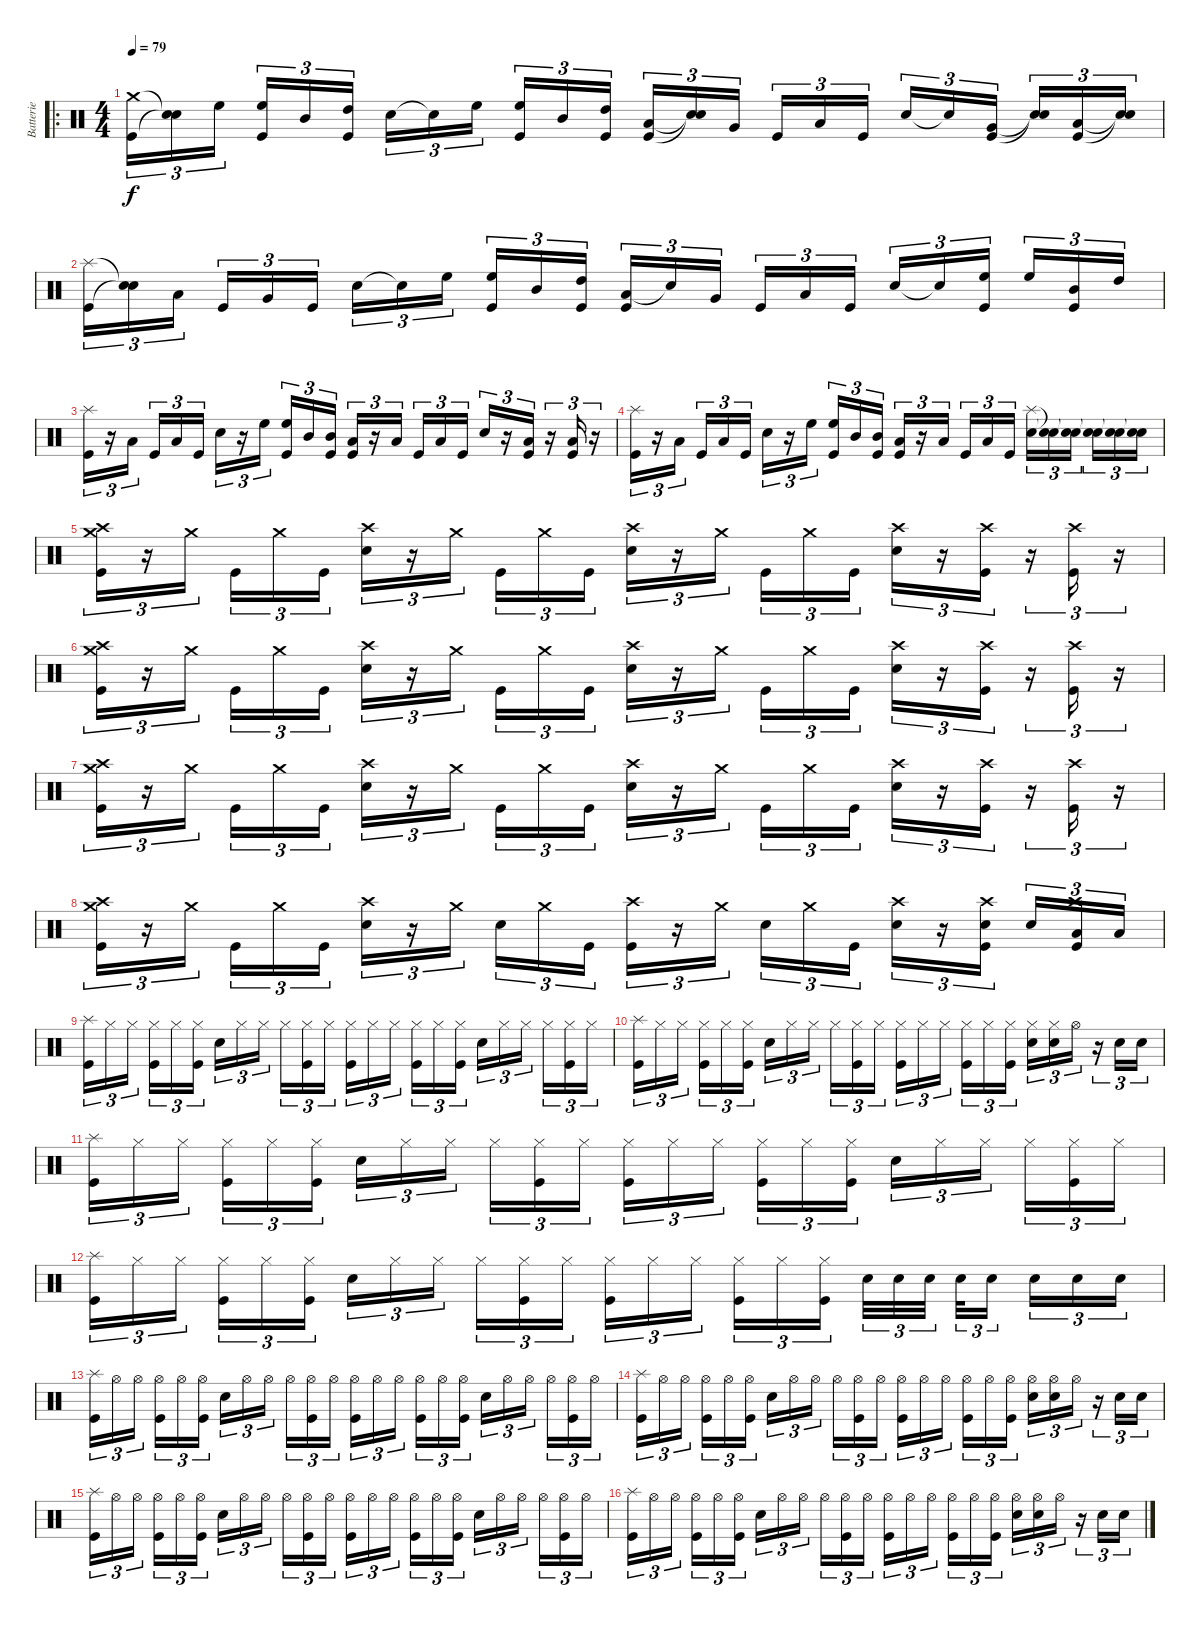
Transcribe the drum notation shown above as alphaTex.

\track ("Batterie" "Batterie") {instrument percussion}
\staff {score}
\articulation defaults
\ro
\ts (4 4)
\tempo 79
\clef neutral
\ks c
("Crash medium (hit)" "Kick (hit)").16{tu (3 2) dy f} ("Snare (hit)"{t} "Snare (hit)"{t}).16{tu (3 2)} "High Floor Tom (hit)".16{tu (3 2)} ("High Floor Tom (hit)" "Kick (hit)").16{tu (3 2)} "Mid Tom (hit)".16{tu (3 2)} ("High Tom (hit)" "Kick (hit)").16{tu (3 2)} "Snare (hit) 2".16{tu (3 2)} "Snare (hit)"{t}.16{tu (3 2)} "High Floor Tom (hit)".16{tu (3 2)} ("High Floor Tom (hit)" "Kick (hit)").16{tu (3 2)} "Mid Tom (hit)".16{tu (3 2)} ("High Tom (hit)" "Kick (hit)").16{tu (3 2)} ("Low Floor Tom (hit)" "Kick (hit)").16{tu (3 2)} ("Snare (hit)"{t} "Snare (hit)"{t}).16{tu (3 2)} "Very Low Tom (hit)".16{tu (3 2)} "Kick (hit)".16{tu (3 2)} "Low Floor Tom (hit)".16{tu (3 2)} "Kick (hit)".16{tu (3 2)} "Snare (hit) 2".16{tu (3 2)} "Snare (hit)"{t}.16{tu (3 2)} ("Very Low Tom (hit)" "Kick (hit)").16{tu (3 2)} ("Snare (hit)"{t} "Snare (hit)"{t}).16{tu (3 2)} ("Low Floor Tom (hit)" "Kick (hit)").16{tu (3 2)} ("Snare (hit)"{t} "Snare (hit)"{t}).16{tu (3 2)} |
("Splash (hit)" "Kick (hit)").16{tu (3 2)} ("Snare (hit)"{t} "Snare (hit)"{t}).16{tu (3 2)} "Low Floor Tom (hit)".16{tu (3 2)} "Kick (hit)".16{tu (3 2)} "Very Low Tom (hit)".16{tu (3 2)} "Kick (hit)".16{tu (3 2)} "Snare (hit) 2".16{tu (3 2)} "Snare (hit)"{t}.16{tu (3 2)} "High Floor Tom (hit)".16{tu (3 2)} ("High Floor Tom (hit)" "Kick (hit)").16{tu (3 2)} "Mid Tom (hit)".16{tu (3 2)} ("High Tom (hit)" "Kick (hit)").16{tu (3 2)} ("Low Floor Tom (hit)" "Kick (hit)").16{tu (3 2)} "Snare (hit)"{t}.16{tu (3 2)} "Very Low Tom (hit)".16{tu (3 2)} "Kick (hit)".16{tu (3 2)} "Low Floor Tom (hit)".16{tu (3 2)} "Kick (hit)".16{tu (3 2)} "Snare (hit) 2".16{tu (3 2)} "Snare (hit)"{t}.16{tu (3 2)} ("High Floor Tom (hit)" "Kick (hit)").16{tu (3 2)} "High Floor Tom (hit)".16{tu (3 2)} ("Mid Tom (hit)" "Kick (hit)").16{tu (3 2)} "High Tom (hit)".16{tu (3 2)} |
("Splash (hit)" "Kick (hit)").16{tu (3 2)} r.16{tu (3 2)} "Low Floor Tom (hit)".16{tu (3 2)} "Kick (hit)".16{tu (3 2)} "Low Floor Tom (hit)".16{tu (3 2)} "Kick (hit)".16{tu (3 2)} "Snare (hit) 2".16{tu (3 2)} r.16{tu (3 2)} "High Floor Tom (hit)".16{tu (3 2)} ("High Floor Tom (hit)" "Kick (hit)").16{tu (3 2)} "Mid Tom (hit)".16{tu (3 2)} ("Mid Tom (hit)" "Kick (hit)").16{tu (3 2)} ("Low Floor Tom (hit)" "Kick (hit)").16{tu (3 2)} r.16{tu (3 2)} "Low Floor Tom (hit)".16{tu (3 2)} "Kick (hit)".16{tu (3 2)} "Low Floor Tom (hit)".16{tu (3 2)} "Kick (hit)".16{tu (3 2)} "Snare (hit) 2".16{tu (3 2)} r.16{tu (3 2)} ("Low Floor Tom (hit)" "Kick (hit)").16{tu (3 2)} r.16{tu (3 2)} ("Low Floor Tom (hit)" "Kick (hit)").16{tu (3 2)} r.16{tu (3 2)} |
("Splash (hit)" "Kick (hit)").16{tu (3 2)} r.16{tu (3 2)} "Low Floor Tom (hit)".16{tu (3 2)} "Kick (hit)".16{tu (3 2)} "Low Floor Tom (hit)".16{tu (3 2)} "Kick (hit)".16{tu (3 2)} "Snare (hit) 2".16{tu (3 2)} r.16{tu (3 2)} "High Floor Tom (hit)".16{tu (3 2)} ("High Floor Tom (hit)" "Kick (hit)").16{tu (3 2)} "Mid Tom (hit)".16{tu (3 2)} ("Mid Tom (hit)" "Kick (hit)").16{tu (3 2)} ("Low Floor Tom (hit)" "Kick (hit)").16{tu (3 2)} r.16{tu (3 2)} "Low Floor Tom (hit)".16{tu (3 2)} "Kick (hit)".16{tu (3 2)} "Low Floor Tom (hit)".16{tu (3 2)} "Kick (hit)".16{tu (3 2)} ("Splash (hit)" "Snare (hit) 2").16{tu (3 2)} ("Snare (hit)"{t} "Snare (hit)"{t}).16{tu (3 2)} ("Snare (hit)"{t} "Snare (hit)"{t}).16{tu (3 2)} ("Snare (hit)"{t} "Snare (hit)"{t}).16{tu (3 2)} ("Snare (hit)"{t} "Snare (hit)"{t}).16{tu (3 2)} ("Snare (hit)"{t} "Snare (hit)"{t}).16{tu (3 2)} |
("Crash high (hit)" "Crash medium (hit)" "Kick (hit)").16{tu (3 2)} r.16{tu (3 2)} "Crash medium (hit)".16{tu (3 2)} "Kick (hit)".16{tu (3 2)} "Crash medium (hit)".16{tu (3 2)} "Kick (hit)".16{tu (3 2)} ("Crash high (hit)" "Snare (hit) 2").16{tu (3 2)} r.16{tu (3 2)} "Crash medium (hit)".16{tu (3 2)} "Kick (hit)".16{tu (3 2)} "Crash medium (hit)".16{tu (3 2)} "Kick (hit)".16{tu (3 2)} ("Crash high (hit)" "Snare (hit) 2").16{tu (3 2)} r.16{tu (3 2)} "Crash medium (hit)".16{tu (3 2)} "Kick (hit)".16{tu (3 2)} "Crash medium (hit)".16{tu (3 2)} "Kick (hit)".16{tu (3 2)} ("Crash high (hit)" "Snare (hit) 2").16{tu (3 2)} r.16{tu (3 2)} ("Crash high (hit)" "Kick (hit)").16{tu (3 2)} r.16{tu (3 2)} ("Crash high (hit)" "Kick (hit)").16{tu (3 2)} r.16{tu (3 2)} |
("Crash high (hit)" "Crash medium (hit)" "Kick (hit)").16{tu (3 2)} r.16{tu (3 2)} "Crash medium (hit)".16{tu (3 2)} "Kick (hit)".16{tu (3 2)} "Crash medium (hit)".16{tu (3 2)} "Kick (hit)".16{tu (3 2)} ("Crash high (hit)" "Snare (hit) 2").16{tu (3 2)} r.16{tu (3 2)} "Crash medium (hit)".16{tu (3 2)} "Kick (hit)".16{tu (3 2)} "Crash medium (hit)".16{tu (3 2)} "Kick (hit)".16{tu (3 2)} ("Crash high (hit)" "Snare (hit) 2").16{tu (3 2)} r.16{tu (3 2)} "Crash medium (hit)".16{tu (3 2)} "Kick (hit)".16{tu (3 2)} "Crash medium (hit)".16{tu (3 2)} "Kick (hit)".16{tu (3 2)} ("Crash high (hit)" "Snare (hit) 2").16{tu (3 2)} r.16{tu (3 2)} ("Crash high (hit)" "Kick (hit)").16{tu (3 2)} r.16{tu (3 2)} ("Crash high (hit)" "Kick (hit)").16{tu (3 2)} r.16{tu (3 2)} |
("Crash high (hit)" "Crash medium (hit)" "Kick (hit)").16{tu (3 2)} r.16{tu (3 2)} "Crash medium (hit)".16{tu (3 2)} "Kick (hit)".16{tu (3 2)} "Crash medium (hit)".16{tu (3 2)} "Kick (hit)".16{tu (3 2)} ("Crash high (hit)" "Snare (hit) 2").16{tu (3 2)} r.16{tu (3 2)} "Crash medium (hit)".16{tu (3 2)} "Kick (hit)".16{tu (3 2)} "Crash medium (hit)".16{tu (3 2)} "Kick (hit)".16{tu (3 2)} ("Crash high (hit)" "Snare (hit) 2").16{tu (3 2)} r.16{tu (3 2)} "Crash medium (hit)".16{tu (3 2)} "Kick (hit)".16{tu (3 2)} "Crash medium (hit)".16{tu (3 2)} "Kick (hit)".16{tu (3 2)} ("Crash high (hit)" "Snare (hit) 2").16{tu (3 2)} r.16{tu (3 2)} ("Crash high (hit)" "Kick (hit)").16{tu (3 2)} r.16{tu (3 2)} ("Crash high (hit)" "Kick (hit)").16{tu (3 2)} r.16{tu (3 2)} |
("Crash high (hit)" "Crash medium (hit)" "Kick (hit)").16{tu (3 2)} r.16{tu (3 2)} "Crash medium (hit)".16{tu (3 2)} "Kick (hit)".16{tu (3 2)} "Crash medium (hit)".16{tu (3 2)} "Kick (hit)".16{tu (3 2)} ("Crash high (hit)" "Snare (hit) 2").16{tu (3 2)} r.16{tu (3 2)} "Crash medium (hit)".16{tu (3 2)} "Snare (hit) 2".16{tu (3 2)} "Crash medium (hit)".16{tu (3 2)} "Kick (hit)".16{tu (3 2)} ("Crash high (hit)" "Kick (hit)").16{tu (3 2)} r.16{tu (3 2)} "Crash medium (hit)".16{tu (3 2)} "Snare (hit) 2".16{tu (3 2)} "Crash medium (hit)".16{tu (3 2)} "Kick (hit)".16{tu (3 2)} ("Crash high (hit)" "Snare (hit) 2").16{tu (3 2)} r.16{tu (3 2)} ("Crash high (hit)" "Snare (hit) 2" "Kick (hit)").16{tu (3 2)} "Snare (hit) 2".16{tu (3 2)} ("Crash high (hit)" "Low Tom (hit)" "Kick (hit)").16{tu (3 2)} "Low Tom (hit)".16{tu (3 2)} |
("Splash (hit)" "Kick (hit)").16{tu (3 2)} "Hi-Hat (closed)".16{tu (3 2)} "Hi-Hat (closed)".16{tu (3 2)} ("Hi-Hat (closed)" "Kick (hit)").16{tu (3 2)} "Hi-Hat (closed)".16{tu (3 2)} ("Hi-Hat (closed)" "Kick (hit)").16{tu (3 2)} "Snare (hit) 2".16{tu (3 2)} "Hi-Hat (closed)".16{tu (3 2)} "Hi-Hat (closed)".16{tu (3 2)} "Hi-Hat (closed)".16{tu (3 2)} ("Hi-Hat (closed)" "Kick (hit)").16{tu (3 2)} "Hi-Hat (closed)".16{tu (3 2)} ("Hi-Hat (closed)" "Kick (hit)").16{tu (3 2)} "Hi-Hat (closed)".16{tu (3 2)} "Hi-Hat (closed)".16{tu (3 2)} ("Hi-Hat (closed)" "Kick (hit)").16{tu (3 2)} "Hi-Hat (closed)".16{tu (3 2)} ("Hi-Hat (closed)" "Kick (hit)").16{tu (3 2)} "Snare (hit) 2".16{tu (3 2)} "Hi-Hat (closed)".16{tu (3 2)} "Hi-Hat (closed)".16{tu (3 2)} "Hi-Hat (closed)".16{tu (3 2)} ("Hi-Hat (closed)" "Kick (hit)").16{tu (3 2)} "Hi-Hat (closed)".16{tu (3 2)} |
("Splash (hit)" "Kick (hit)").16{tu (3 2)} "Hi-Hat (closed)".16{tu (3 2)} "Hi-Hat (closed)".16{tu (3 2)} ("Hi-Hat (closed)" "Kick (hit)").16{tu (3 2)} "Hi-Hat (closed)".16{tu (3 2)} ("Hi-Hat (closed)" "Kick (hit)").16{tu (3 2)} "Snare (hit) 2".16{tu (3 2)} "Hi-Hat (closed)".16{tu (3 2)} "Hi-Hat (closed)".16{tu (3 2)} "Hi-Hat (closed)".16{tu (3 2)} ("Hi-Hat (closed)" "Kick (hit)").16{tu (3 2)} "Hi-Hat (closed)".16{tu (3 2)} ("Hi-Hat (closed)" "Kick (hit)").16{tu (3 2)} "Hi-Hat (closed)".16{tu (3 2)} "Hi-Hat (closed)".16{tu (3 2)} ("Hi-Hat (closed)" "Kick (hit)").16{tu (3 2)} "Hi-Hat (closed)".16{tu (3 2)} ("Hi-Hat (closed)" "Kick (hit)").16{tu (3 2)} ("Hi-Hat (closed)" "Snare (hit) 2").16{tu (3 2)} ("Hi-Hat (closed)" "Snare (hit) 2").16{tu (3 2)} "Hi-Hat (open)".16{tu (3 2)} r.16{tu (3 2)} "Snare (hit) 2".16{tu (3 2)} "Snare (hit) 2".16{tu (3 2)} |
("Splash (hit)" "Kick (hit)").16{tu (3 2)} "Hi-Hat (closed)".16{tu (3 2)} "Hi-Hat (closed)".16{tu (3 2)} ("Hi-Hat (closed)" "Kick (hit)").16{tu (3 2)} "Hi-Hat (closed)".16{tu (3 2)} ("Hi-Hat (closed)" "Kick (hit)").16{tu (3 2)} "Snare (hit) 2".16{tu (3 2)} "Hi-Hat (closed)".16{tu (3 2)} "Hi-Hat (closed)".16{tu (3 2)} "Hi-Hat (closed)".16{tu (3 2)} ("Hi-Hat (closed)" "Kick (hit)").16{tu (3 2)} "Hi-Hat (closed)".16{tu (3 2)} ("Hi-Hat (closed)" "Kick (hit)").16{tu (3 2)} "Hi-Hat (closed)".16{tu (3 2)} "Hi-Hat (closed)".16{tu (3 2)} ("Hi-Hat (closed)" "Kick (hit)").16{tu (3 2)} "Hi-Hat (closed)".16{tu (3 2)} ("Hi-Hat (closed)" "Kick (hit)").16{tu (3 2)} "Snare (hit) 2".16{tu (3 2)} "Hi-Hat (closed)".16{tu (3 2)} "Hi-Hat (closed)".16{tu (3 2)} "Hi-Hat (closed)".16{tu (3 2)} ("Hi-Hat (closed)" "Kick (hit)").16{tu (3 2)} "Hi-Hat (closed)".16{tu (3 2)} |
("Splash (hit)" "Kick (hit)").16{tu (3 2)} "Hi-Hat (closed)".16{tu (3 2)} "Hi-Hat (closed)".16{tu (3 2)} ("Hi-Hat (closed)" "Kick (hit)").16{tu (3 2)} "Hi-Hat (closed)".16{tu (3 2)} ("Hi-Hat (closed)" "Kick (hit)").16{tu (3 2)} "Snare (hit) 2".16{tu (3 2)} "Hi-Hat (closed)".16{tu (3 2)} "Hi-Hat (closed)".16{tu (3 2)} "Hi-Hat (closed)".16{tu (3 2)} ("Hi-Hat (closed)" "Kick (hit)").16{tu (3 2)} "Hi-Hat (closed)".16{tu (3 2)} ("Hi-Hat (closed)" "Kick (hit)").16{tu (3 2)} "Hi-Hat (closed)".16{tu (3 2)} "Hi-Hat (closed)".16{tu (3 2)} ("Hi-Hat (closed)" "Kick (hit)").16{tu (3 2)} "Hi-Hat (closed)".16{tu (3 2)} ("Hi-Hat (closed)" "Kick (hit)").16{tu (3 2)} "Snare (hit) 2".32{tu (3 2)} "Snare (hit) 2".32{tu (3 2)} "Snare (hit) 2".32{tu (3 2)} "Snare (hit) 2".32{tu (3 2)} "Snare (hit) 2".16{tu (3 2)} "Snare (hit) 2".16{tu (3 2)} "Snare (hit) 2".16{tu (3 2)} "Snare (hit) 2".16{tu (3 2)} |
("Splash (hit)" "Kick (hit)").16{tu (3 2)} "Hi-Hat (open)".16{tu (3 2)} "Hi-Hat (open)".16{tu (3 2)} ("Hi-Hat (open)" "Kick (hit)").16{tu (3 2)} "Hi-Hat (open)".16{tu (3 2)} ("Hi-Hat (open)" "Kick (hit)").16{tu (3 2)} "Snare (hit) 2".16{tu (3 2)} "Hi-Hat (open)".16{tu (3 2)} "Hi-Hat (open)".16{tu (3 2)} "Hi-Hat (open)".16{tu (3 2)} ("Hi-Hat (open)" "Kick (hit)").16{tu (3 2)} "Hi-Hat (open)".16{tu (3 2)} ("Hi-Hat (open)" "Kick (hit)").16{tu (3 2)} "Hi-Hat (open)".16{tu (3 2)} "Hi-Hat (open)".16{tu (3 2)} ("Hi-Hat (open)" "Kick (hit)").16{tu (3 2)} "Hi-Hat (open)".16{tu (3 2)} ("Hi-Hat (open)" "Kick (hit)").16{tu (3 2)} "Snare (hit) 2".16{tu (3 2)} "Hi-Hat (open)".16{tu (3 2)} "Hi-Hat (open)".16{tu (3 2)} "Hi-Hat (open)".16{tu (3 2)} ("Hi-Hat (open)" "Kick (hit)").16{tu (3 2)} "Hi-Hat (open)".16{tu (3 2)} |
("Splash (hit)" "Kick (hit)").16{tu (3 2)} "Hi-Hat (open)".16{tu (3 2)} "Hi-Hat (open)".16{tu (3 2)} ("Hi-Hat (open)" "Kick (hit)").16{tu (3 2)} "Hi-Hat (open)".16{tu (3 2)} ("Hi-Hat (open)" "Kick (hit)").16{tu (3 2)} "Snare (hit) 2".16{tu (3 2)} "Hi-Hat (open)".16{tu (3 2)} "Hi-Hat (open)".16{tu (3 2)} "Hi-Hat (open)".16{tu (3 2)} ("Hi-Hat (open)" "Kick (hit)").16{tu (3 2)} "Hi-Hat (open)".16{tu (3 2)} ("Hi-Hat (open)" "Kick (hit)").16{tu (3 2)} "Hi-Hat (open)".16{tu (3 2)} "Hi-Hat (open)".16{tu (3 2)} ("Hi-Hat (open)" "Kick (hit)").16{tu (3 2)} "Hi-Hat (open)".16{tu (3 2)} ("Hi-Hat (open)" "Kick (hit)").16{tu (3 2)} ("Hi-Hat (open)" "Snare (hit) 2").16{tu (3 2)} ("Hi-Hat (open)" "Snare (hit) 2").16{tu (3 2)} "Hi-Hat (open)".16{tu (3 2)} r.16{tu (3 2)} "Snare (hit) 2".16{tu (3 2)} "Snare (hit) 2".16{tu (3 2)} |
("Splash (hit)" "Kick (hit)").16{tu (3 2)} "Hi-Hat (open)".16{tu (3 2)} "Hi-Hat (open)".16{tu (3 2)} ("Hi-Hat (open)" "Kick (hit)").16{tu (3 2)} "Hi-Hat (open)".16{tu (3 2)} ("Hi-Hat (open)" "Kick (hit)").16{tu (3 2)} "Snare (hit) 2".16{tu (3 2)} "Hi-Hat (open)".16{tu (3 2)} "Hi-Hat (open)".16{tu (3 2)} "Hi-Hat (open)".16{tu (3 2)} ("Hi-Hat (open)" "Kick (hit)").16{tu (3 2)} "Hi-Hat (open)".16{tu (3 2)} ("Hi-Hat (open)" "Kick (hit)").16{tu (3 2)} "Hi-Hat (open)".16{tu (3 2)} "Hi-Hat (open)".16{tu (3 2)} ("Hi-Hat (open)" "Kick (hit)").16{tu (3 2)} "Hi-Hat (open)".16{tu (3 2)} ("Hi-Hat (open)" "Kick (hit)").16{tu (3 2)} "Snare (hit) 2".16{tu (3 2)} "Hi-Hat (open)".16{tu (3 2)} "Hi-Hat (open)".16{tu (3 2)} "Hi-Hat (open)".16{tu (3 2)} ("Hi-Hat (open)" "Kick (hit)").16{tu (3 2)} "Hi-Hat (open)".16{tu (3 2)} |
("Splash (hit)" "Kick (hit)").16{tu (3 2)} "Hi-Hat (open)".16{tu (3 2)} "Hi-Hat (open)".16{tu (3 2)} ("Hi-Hat (open)" "Kick (hit)").16{tu (3 2)} "Hi-Hat (open)".16{tu (3 2)} ("Hi-Hat (open)" "Kick (hit)").16{tu (3 2)} "Snare (hit) 2".16{tu (3 2)} "Hi-Hat (open)".16{tu (3 2)} "Hi-Hat (open)".16{tu (3 2)} "Hi-Hat (open)".16{tu (3 2)} ("Hi-Hat (open)" "Kick (hit)").16{tu (3 2)} "Hi-Hat (open)".16{tu (3 2)} ("Hi-Hat (open)" "Kick (hit)").16{tu (3 2)} "Hi-Hat (open)".16{tu (3 2)} "Hi-Hat (open)".16{tu (3 2)} ("Hi-Hat (open)" "Kick (hit)").16{tu (3 2)} "Hi-Hat (open)".16{tu (3 2)} ("Hi-Hat (open)" "Kick (hit)").16{tu (3 2)} ("Hi-Hat (open)" "Snare (hit) 2").16{tu (3 2)} ("Hi-Hat (open)" "Snare (hit) 2").16{tu (3 2)} "Hi-Hat (open)".16{tu (3 2)} r.16{tu (3 2)} "Snare (hit) 2".16{tu (3 2)} "Snare (hit) 2".16{tu (3 2)}
